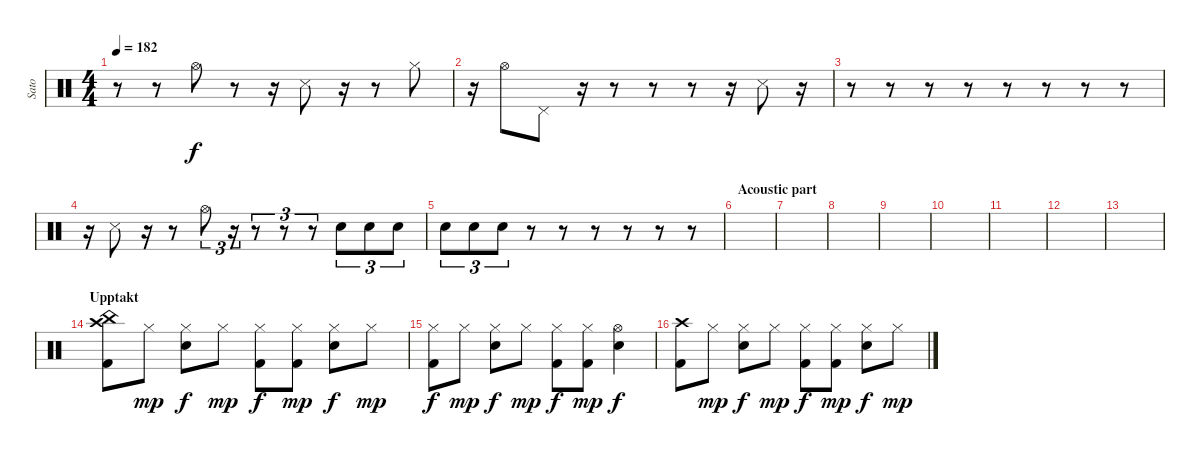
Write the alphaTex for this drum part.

\track ("Sato" "Sato") {instrument percussion}
\staff {score}
\articulation defaults
\ts (4 4)
\tempo 182
\clef neutral
\ks c
r.8{dy fff} r.8 "Hi-Hat (open)".8{dy f} r.8 r.16 "Snare (side stick) 3".8 r.16 r.8 "Hi-Hat (closed)".8 |
r.16 "Hi-Hat (open)".8 "Pedal Hi-Hat (hit)".8 r.16 r.8 r.8 r.8 r.16 "Snare (side stick) 3".8 r.16 |
r.8 r.8 r.8 r.8 r.8 r.8 r.8 r.8 |
r.16 "Snare (side stick) 3".8 r.16 r.8 "Hi-Hat (open)".8{tu (3 2)} r.16{tu (3 2)} r.8{tu (3 2)} r.8{tu (3 2)} r.8{tu (3 2)} "Electric Snare (hit)".8{tu (3 2)} "Electric Snare (hit)".8{tu (3 2)} "Electric Snare (hit)".8{tu (3 2)} |
"Electric Snare (hit)".8{tu (3 2)} "Electric Snare (hit)".8{tu (3 2)} "Electric Snare (hit)".8{tu (3 2)} r.8 r.8 r.8 r.8 r.8 r.8 |
\section ("" "Acoustic part")
|
|
|
|
|
|
|
|
\section ("" "Upptakt")
("Crash high (hit)" "China (hit)" "Kick (hit) 2").8 "Hi-Hat (closed)".8{dy mp} ("Hi-Hat (closed)" "Electric Snare (hit)").8{dy f} "Hi-Hat (closed)".8{dy mp} ("Hi-Hat (closed)" "Kick (hit) 2").8{dy f} ("Hi-Hat (closed)" "Kick (hit) 2").8{dy mp} ("Hi-Hat (closed)" "Electric Snare (hit)").8{dy f} "Hi-Hat (closed)".8{dy mp} |
("Hi-Hat (closed)" "Kick (hit) 2").8{dy f} "Hi-Hat (closed)".8{dy mp} ("Hi-Hat (closed)" "Electric Snare (hit)").8{dy f} "Hi-Hat (closed)".8{dy mp} ("Hi-Hat (closed)" "Kick (hit) 2").8{dy f} ("Hi-Hat (closed)" "Kick (hit) 2").8{dy mp} ("Hi-Hat (open)" "Electric Snare (hit)").4{dy f} |
("Crash high (hit)" "Kick (hit) 2").8 "Hi-Hat (closed)".8{dy mp} ("Hi-Hat (closed)" "Electric Snare (hit)").8{dy f} "Hi-Hat (closed)".8{dy mp} ("Hi-Hat (closed)" "Kick (hit) 2").8{dy f} ("Hi-Hat (closed)" "Kick (hit) 2").8{dy mp} ("Hi-Hat (closed)" "Electric Snare (hit)").8{dy f} "Hi-Hat (closed)".8{dy mp}
